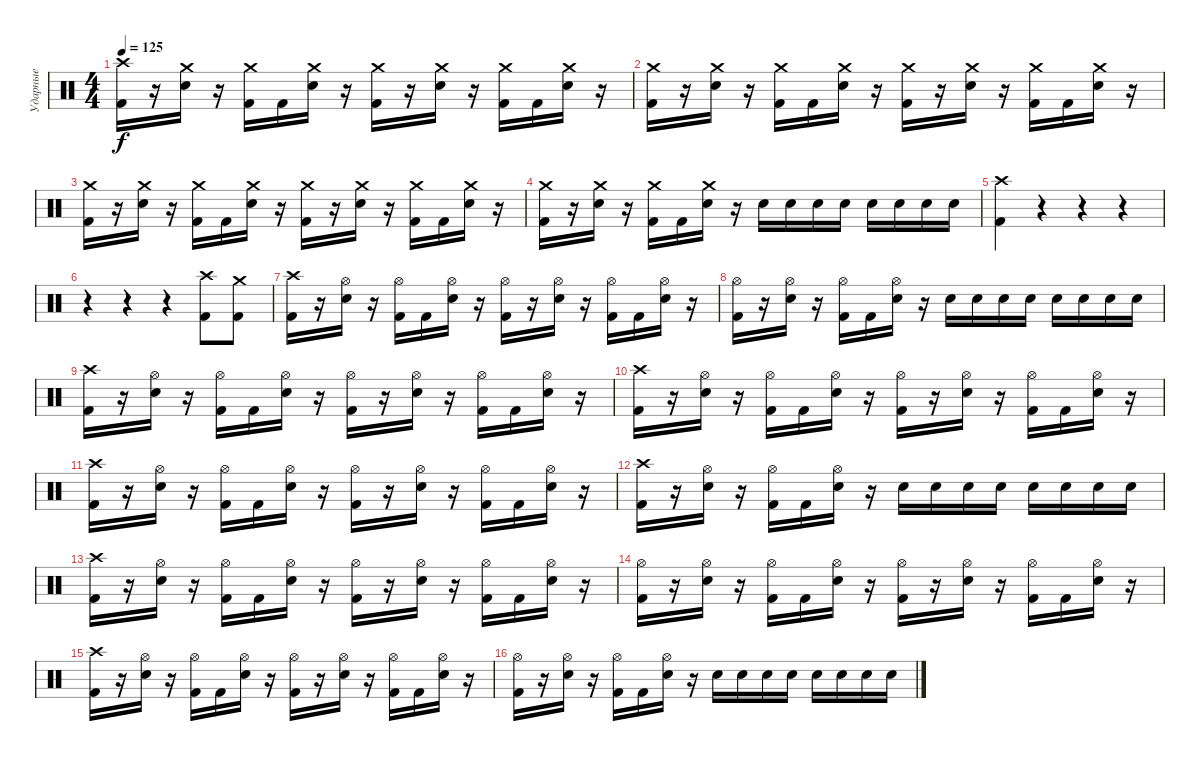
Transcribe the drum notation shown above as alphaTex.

\track ("Ударные" "Ударные") {instrument percussion}
\staff {score}
\articulation defaults
\ts (4 4)
\tempo 125
\clef neutral
\ks c
("Crash high (hit)" "Kick (hit) 2").16{dy f} r.16 ("Crash medium (hit)" "Snare (hit) 2").16 r.16 ("Crash medium (hit)" "Kick (hit) 2").16 "Kick (hit) 2".16 ("Crash medium (hit)" "Snare (hit) 2").16 r.16 ("Crash medium (hit)" "Kick (hit) 2").16 r.16 ("Crash medium (hit)" "Snare (hit) 2").16 r.16 ("Crash medium (hit)" "Kick (hit) 2").16 "Kick (hit) 2".16 ("Crash medium (hit)" "Snare (hit) 2").16 r.16 |
("Crash medium (hit)" "Kick (hit) 2").16 r.16 ("Crash medium (hit)" "Snare (hit) 2").16 r.16 ("Crash medium (hit)" "Kick (hit) 2").16 "Kick (hit) 2".16 ("Crash medium (hit)" "Snare (hit) 2").16 r.16 ("Crash medium (hit)" "Kick (hit) 2").16 r.16 ("Crash medium (hit)" "Snare (hit) 2").16 r.16 ("Crash medium (hit)" "Kick (hit) 2").16 "Kick (hit) 2".16 ("Crash medium (hit)" "Snare (hit) 2").16 r.16 |
("Crash medium (hit)" "Kick (hit) 2").16 r.16 ("Crash medium (hit)" "Snare (hit) 2").16 r.16 ("Crash medium (hit)" "Kick (hit) 2").16 "Kick (hit) 2".16 ("Crash medium (hit)" "Snare (hit) 2").16 r.16 ("Crash medium (hit)" "Kick (hit) 2").16 r.16 ("Crash medium (hit)" "Snare (hit) 2").16 r.16 ("Crash medium (hit)" "Kick (hit) 2").16 "Kick (hit) 2".16 ("Crash medium (hit)" "Snare (hit) 2").16 r.16 |
("Crash medium (hit)" "Kick (hit) 2").16 r.16 ("Crash medium (hit)" "Snare (hit) 2").16 r.16 ("Crash medium (hit)" "Kick (hit) 2").16 "Kick (hit) 2".16 ("Crash medium (hit)" "Snare (hit) 2").16 r.16 "Snare (hit) 2".16 "Snare (hit) 2".16 "Snare (hit) 2".16 "Snare (hit) 2".16 "Snare (hit) 2".16 "Snare (hit) 2".16 "Snare (hit) 2".16 "Snare (hit) 2".16 |
("Crash high (hit)" "Kick (hit) 2").4 r.4 r.4 r.4 |
r.4 r.4 r.4 ("Crash high (hit)" "Kick (hit) 2").8 ("Crash medium (hit)" "Kick (hit) 2").8 |
("Crash high (hit)" "Kick (hit) 2").16 r.16 ("Hi-Hat (open)" "Snare (hit) 2").16 r.16 ("Hi-Hat (open)" "Kick (hit) 2").16 "Kick (hit) 2".16 ("Hi-Hat (open)" "Snare (hit) 2").16 r.16 ("Hi-Hat (open)" "Kick (hit) 2").16 r.16 ("Hi-Hat (open)" "Snare (hit) 2").16 r.16 ("Hi-Hat (open)" "Kick (hit) 2").16 "Kick (hit) 2".16 ("Hi-Hat (open)" "Snare (hit) 2").16 r.16 |
("Hi-Hat (open)" "Kick (hit) 2").16 r.16 ("Hi-Hat (open)" "Snare (hit) 2").16 r.16 ("Hi-Hat (open)" "Kick (hit) 2").16 "Kick (hit) 2".16 ("Hi-Hat (open)" "Snare (hit) 2").16 r.16 "Snare (hit) 2".16 "Snare (hit) 2".16 "Snare (hit) 2".16 "Snare (hit) 2".16 "Snare (hit) 2".16 "Snare (hit) 2".16 "Snare (hit) 2".16 "Snare (hit) 2".16 |
("Crash high (hit)" "Kick (hit) 2").16 r.16 ("Hi-Hat (open)" "Snare (hit) 2").16 r.16 ("Hi-Hat (open)" "Kick (hit) 2").16 "Kick (hit) 2".16 ("Hi-Hat (open)" "Snare (hit) 2").16 r.16 ("Hi-Hat (open)" "Kick (hit) 2").16 r.16 ("Hi-Hat (open)" "Snare (hit) 2").16 r.16 ("Hi-Hat (open)" "Kick (hit) 2").16 "Kick (hit) 2".16 ("Hi-Hat (open)" "Snare (hit) 2").16 r.16 |
("Crash high (hit)" "Kick (hit) 2").16 r.16 ("Hi-Hat (open)" "Snare (hit) 2").16 r.16 ("Hi-Hat (open)" "Kick (hit) 2").16 "Kick (hit) 2".16 ("Hi-Hat (open)" "Snare (hit) 2").16 r.16 ("Hi-Hat (open)" "Kick (hit) 2").16 r.16 ("Hi-Hat (open)" "Snare (hit) 2").16 r.16 ("Hi-Hat (open)" "Kick (hit) 2").16 "Kick (hit) 2".16 ("Hi-Hat (open)" "Snare (hit) 2").16 r.16 |
("Crash high (hit)" "Kick (hit) 2").16 r.16 ("Hi-Hat (open)" "Snare (hit) 2").16 r.16 ("Hi-Hat (open)" "Kick (hit) 2").16 "Kick (hit) 2".16 ("Hi-Hat (open)" "Snare (hit) 2").16 r.16 ("Hi-Hat (open)" "Kick (hit) 2").16 r.16 ("Hi-Hat (open)" "Snare (hit) 2").16 r.16 ("Hi-Hat (open)" "Kick (hit) 2").16 "Kick (hit) 2".16 ("Hi-Hat (open)" "Snare (hit) 2").16 r.16 |
("Crash high (hit)" "Kick (hit) 2").16 r.16 ("Hi-Hat (open)" "Snare (hit) 2").16 r.16 ("Hi-Hat (open)" "Kick (hit) 2").16 "Kick (hit) 2".16 ("Hi-Hat (open)" "Snare (hit) 2").16 r.16 "Snare (hit) 2".16 "Snare (hit) 2".16 "Snare (hit) 2".16 "Snare (hit) 2".16 "Snare (hit) 2".16 "Snare (hit) 2".16 "Snare (hit) 2".16 "Snare (hit) 2".16 |
("Crash high (hit)" "Kick (hit) 2").16 r.16 ("Hi-Hat (open)" "Snare (hit) 2").16 r.16 ("Hi-Hat (open)" "Kick (hit) 2").16 "Kick (hit) 2".16 ("Hi-Hat (open)" "Snare (hit) 2").16 r.16 ("Hi-Hat (open)" "Kick (hit) 2").16 r.16 ("Hi-Hat (open)" "Snare (hit) 2").16 r.16 ("Hi-Hat (open)" "Kick (hit) 2").16 "Kick (hit) 2".16 ("Hi-Hat (open)" "Snare (hit) 2").16 r.16 |
("Hi-Hat (open)" "Kick (hit) 2").16 r.16 ("Hi-Hat (open)" "Snare (hit) 2").16 r.16 ("Hi-Hat (open)" "Kick (hit) 2").16 "Kick (hit) 2".16 ("Hi-Hat (open)" "Snare (hit) 2").16 r.16 ("Hi-Hat (open)" "Kick (hit) 2").16 r.16 ("Hi-Hat (open)" "Snare (hit) 2").16 r.16 ("Hi-Hat (open)" "Kick (hit) 2").16 "Kick (hit) 2".16 ("Hi-Hat (open)" "Snare (hit) 2").16 r.16 |
("Crash high (hit)" "Kick (hit) 2").16 r.16 ("Hi-Hat (open)" "Snare (hit) 2").16 r.16 ("Hi-Hat (open)" "Kick (hit) 2").16 "Kick (hit) 2".16 ("Hi-Hat (open)" "Snare (hit) 2").16 r.16 ("Hi-Hat (open)" "Kick (hit) 2").16 r.16 ("Hi-Hat (open)" "Snare (hit) 2").16 r.16 ("Hi-Hat (open)" "Kick (hit) 2").16 "Kick (hit) 2".16 ("Hi-Hat (open)" "Snare (hit) 2").16 r.16 |
("Hi-Hat (open)" "Kick (hit) 2").16 r.16 ("Hi-Hat (open)" "Snare (hit) 2").16 r.16 ("Hi-Hat (open)" "Kick (hit) 2").16 "Kick (hit) 2".16 ("Hi-Hat (open)" "Snare (hit) 2").16 r.16 "Snare (hit) 2".16 "Snare (hit) 2".16 "Snare (hit) 2".16 "Snare (hit) 2".16 "Snare (hit) 2".16 "Snare (hit) 2".16 "Snare (hit) 2".16 "Snare (hit) 2".16
